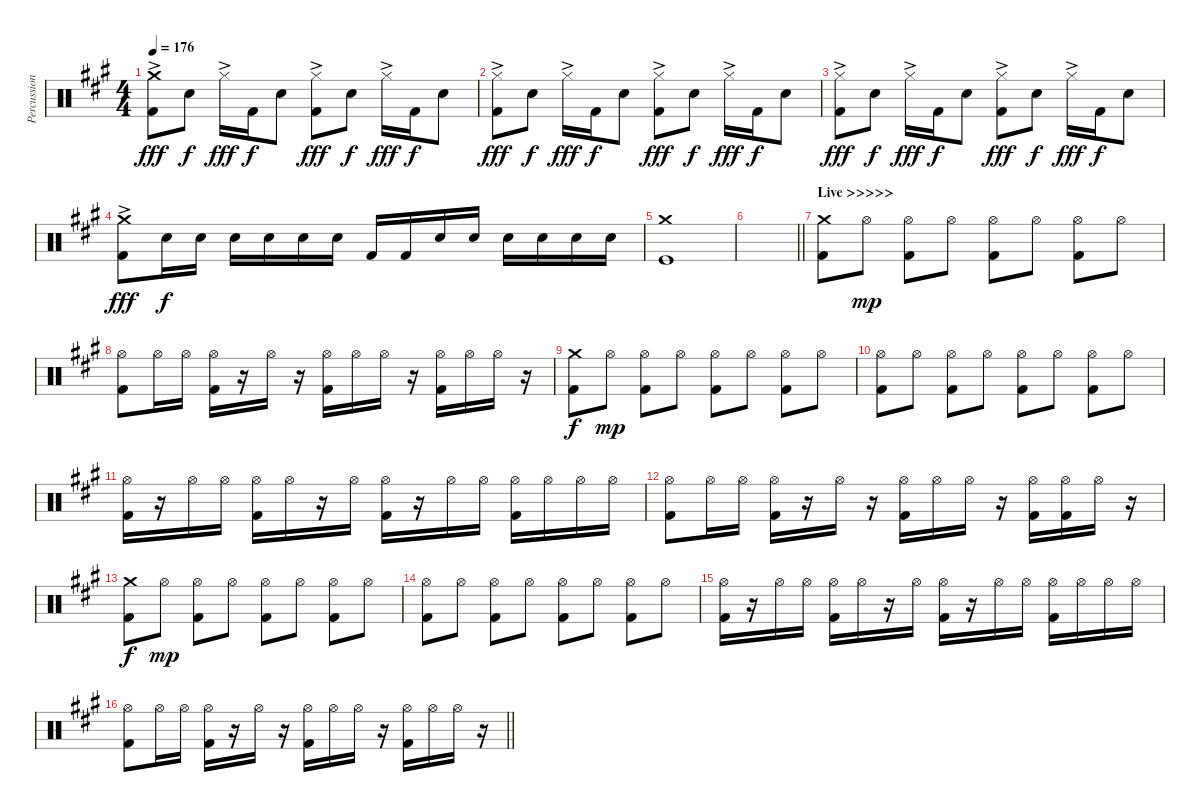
\track ("Percussion" "Percussion") {instrument percussion}
\staff {score}
\articulation defaults
\ts (4 4)
\tempo 176
\clef neutral
\ks a
("Crash medium (hit)"{ac} "Kick (hit) 2").8{dy fff} "Snare (hit) 2".8{dy f} "Hi-Hat (closed)"{ac}.16{dy fff} "Kick (hit) 2".16{dy f} "Snare (hit) 2".8 ("Hi-Hat (closed)"{ac} "Kick (hit) 2").8{dy fff} "Snare (hit) 2".8{dy f} "Hi-Hat (closed)"{ac}.16{dy fff} "Kick (hit) 2".16{dy f} "Snare (hit) 2".8 |
("Hi-Hat (closed)"{ac} "Kick (hit) 2").8{dy fff} "Snare (hit) 2".8{dy f} "Hi-Hat (closed)"{ac}.16{dy fff} "Kick (hit) 2".16{dy f} "Snare (hit) 2".8 ("Hi-Hat (closed)"{ac} "Kick (hit) 2").8{dy fff} "Snare (hit) 2".8{dy f} "Hi-Hat (closed)"{ac}.16{dy fff} "Kick (hit) 2".16{dy f} "Snare (hit) 2".8 |
("Hi-Hat (closed)"{ac} "Kick (hit) 2").8{dy fff} "Snare (hit) 2".8{dy f} "Hi-Hat (closed)"{ac}.16{dy fff} "Kick (hit) 2".16{dy f} "Snare (hit) 2".8 ("Hi-Hat (closed)"{ac} "Kick (hit) 2").8{dy fff} "Snare (hit) 2".8{dy f} "Hi-Hat (closed)"{ac}.16{dy fff} "Kick (hit) 2".16{dy f} "Snare (hit) 2".8 |
("Crash medium (hit)"{ac} "Kick (hit) 2").8{dy fff} "Snare (hit) 2".16{dy f} "Snare (hit) 2".16 "Snare (hit) 2".16 "Snare (hit) 2".16 "Snare (hit) 2".16 "Snare (hit) 2".16 "Kick (hit) 2".16 "Kick (hit) 2".16 "Snare (hit) 2".16 "Snare (hit) 2".16 "Snare (hit) 2".16 "Snare (hit) 2".16 "Snare (hit) 2".16 "Snare (hit) 2".16 |
("Crash medium (hit)" "Kick (hit)").1 |
\barLineRight lightlight
|
\section ("" "Live >>>>>")
("Crash medium (hit)" "Kick (hit) 2").8 "Hi-Hat (open)".8{dy mp} ("Hi-Hat (open)" "Kick (hit) 2").8 "Hi-Hat (open)".8 ("Hi-Hat (open)" "Kick (hit) 2").8 "Hi-Hat (open)".8 ("Hi-Hat (open)" "Kick (hit) 2").8 "Hi-Hat (open)".8 |
("Hi-Hat (open)" "Kick (hit) 2").8 "Hi-Hat (open)".16 "Hi-Hat (open)".16 ("Hi-Hat (open)" "Kick (hit) 2").16 r.16 "Hi-Hat (open)".16 r.16 ("Hi-Hat (open)" "Kick (hit) 2").16 "Hi-Hat (open)".16 "Hi-Hat (open)".16 r.16 ("Hi-Hat (open)" "Kick (hit) 2").16 "Hi-Hat (open)".16 "Hi-Hat (open)".16 r.16 |
("Crash medium (hit)" "Kick (hit) 2").8{dy f} "Hi-Hat (open)".8{dy mp} ("Hi-Hat (open)" "Kick (hit) 2").8 "Hi-Hat (open)".8 ("Hi-Hat (open)" "Kick (hit) 2").8 "Hi-Hat (open)".8 ("Hi-Hat (open)" "Kick (hit) 2").8 "Hi-Hat (open)".8 |
("Hi-Hat (open)" "Kick (hit) 2").8 "Hi-Hat (open)".8 ("Hi-Hat (open)" "Kick (hit) 2").8 "Hi-Hat (open)".8 ("Hi-Hat (open)" "Kick (hit) 2").8 "Hi-Hat (open)".8 ("Hi-Hat (open)" "Kick (hit) 2").8 "Hi-Hat (open)".8 |
("Hi-Hat (open)" "Kick (hit) 2").16 r.16 "Hi-Hat (open)".16 "Hi-Hat (open)".16 ("Hi-Hat (open)" "Kick (hit) 2").16 "Hi-Hat (open)".16 r.16 "Hi-Hat (open)".16 ("Hi-Hat (open)" "Kick (hit) 2").16 r.16 "Hi-Hat (open)".16 "Hi-Hat (open)".16 ("Hi-Hat (open)" "Kick (hit) 2").16 "Hi-Hat (open)".16 "Hi-Hat (open)".16 "Hi-Hat (open)".16 |
("Hi-Hat (open)" "Kick (hit) 2").8 "Hi-Hat (open)".16 "Hi-Hat (open)".16 ("Hi-Hat (open)" "Kick (hit) 2").16 r.16 "Hi-Hat (open)".16 r.16 ("Hi-Hat (open)" "Kick (hit) 2").16 "Hi-Hat (open)".16 "Hi-Hat (open)".16 r.16 ("Hi-Hat (open)" "Kick (hit) 2").16 ("Hi-Hat (open)" "Kick (hit) 2").16 "Hi-Hat (open)".16 r.16 |
("Crash medium (hit)" "Kick (hit) 2").8{dy f} "Hi-Hat (open)".8{dy mp} ("Hi-Hat (open)" "Kick (hit) 2").8 "Hi-Hat (open)".8 ("Hi-Hat (open)" "Kick (hit) 2").8 "Hi-Hat (open)".8 ("Hi-Hat (open)" "Kick (hit) 2").8 "Hi-Hat (open)".8 |
("Hi-Hat (open)" "Kick (hit) 2").8 "Hi-Hat (open)".8 ("Hi-Hat (open)" "Kick (hit) 2").8 "Hi-Hat (open)".8 ("Hi-Hat (open)" "Kick (hit) 2").8 "Hi-Hat (open)".8 ("Hi-Hat (open)" "Kick (hit) 2").8 "Hi-Hat (open)".8 |
("Hi-Hat (open)" "Kick (hit) 2").16 r.16 "Hi-Hat (open)".16 "Hi-Hat (open)".16 ("Hi-Hat (open)" "Kick (hit) 2").16 "Hi-Hat (open)".16 r.16 "Hi-Hat (open)".16 ("Hi-Hat (open)" "Kick (hit) 2").16 r.16 "Hi-Hat (open)".16 "Hi-Hat (open)".16 ("Hi-Hat (open)" "Kick (hit) 2").16 "Hi-Hat (open)".16 "Hi-Hat (open)".16 "Hi-Hat (open)".16 |
\barLineRight lightlight
("Hi-Hat (open)" "Kick (hit) 2").8 "Hi-Hat (open)".16 "Hi-Hat (open)".16 ("Hi-Hat (open)" "Kick (hit) 2").16 r.16 "Hi-Hat (open)".16 r.16 ("Hi-Hat (open)" "Kick (hit) 2").16 "Hi-Hat (open)".16 "Hi-Hat (open)".16 r.16 ("Hi-Hat (open)" "Kick (hit) 2").16 "Hi-Hat (open)".16 "Hi-Hat (open)".16 r.16
